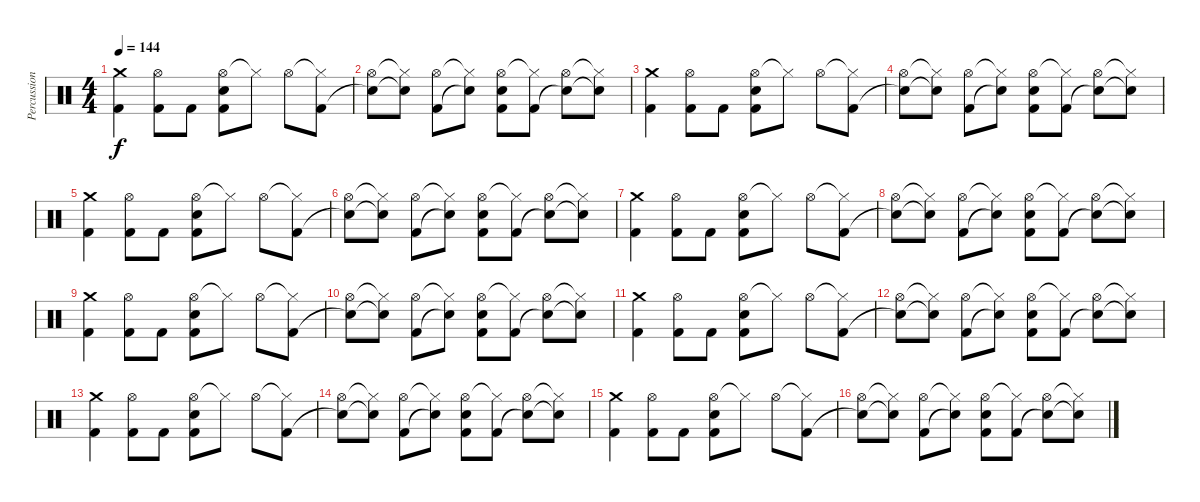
\track ("Percussion" "Percussion") {instrument percussion}
\staff {score}
\articulation defaults
\ts (4 4)
\tempo 144
\clef neutral
\ks c
("Crash medium (hit)" "Kick (hit) 2").4{dy f} ("Hi-Hat (open)" "Kick (hit) 2").8 "Kick (hit) 2".8 ("Hi-Hat (open)" "Electric Snare (hit)" "Kick (hit) 2").8 "Hi-Hat (closed)"{t}.8 "Hi-Hat (open)".8 ("Hi-Hat (closed)"{t} "Kick (hit) 2").8 |
("Hi-Hat (open)" "Snare (hit)"{t}).8 ("Hi-Hat (closed)"{t} "Snare (hit)"{t}).8 ("Hi-Hat (open)" "Kick (hit) 2").8 ("Hi-Hat (closed)"{t} "Snare (hit)"{t}).8 ("Hi-Hat (open)" "Electric Snare (hit)" "Kick (hit) 2").8 ("Hi-Hat (closed)"{t} "Kick (hit) 2").8 ("Hi-Hat (open)" "Snare (hit)"{t}).8 ("Hi-Hat (closed)"{t} "Snare (hit)"{t}).8 |
("Crash medium (hit)" "Kick (hit) 2").4 ("Hi-Hat (open)" "Kick (hit) 2").8 "Kick (hit) 2".8 ("Hi-Hat (open)" "Electric Snare (hit)" "Kick (hit) 2").8 "Hi-Hat (closed)"{t}.8 "Hi-Hat (open)".8 ("Hi-Hat (closed)"{t} "Kick (hit) 2").8 |
("Hi-Hat (open)" "Snare (hit)"{t}).8 ("Hi-Hat (closed)"{t} "Snare (hit)"{t}).8 ("Hi-Hat (open)" "Kick (hit) 2").8 ("Hi-Hat (closed)"{t} "Snare (hit)"{t}).8 ("Hi-Hat (open)" "Electric Snare (hit)" "Kick (hit) 2").8 ("Hi-Hat (closed)"{t} "Kick (hit) 2").8 ("Hi-Hat (open)" "Snare (hit)"{t}).8 ("Hi-Hat (closed)"{t} "Snare (hit)"{t}).8 |
("Crash medium (hit)" "Kick (hit) 2").4 ("Hi-Hat (open)" "Kick (hit) 2").8 "Kick (hit) 2".8 ("Hi-Hat (open)" "Electric Snare (hit)" "Kick (hit) 2").8 "Hi-Hat (closed)"{t}.8 "Hi-Hat (open)".8 ("Hi-Hat (closed)"{t} "Kick (hit) 2").8 |
("Hi-Hat (open)" "Snare (hit)"{t}).8 ("Hi-Hat (closed)"{t} "Snare (hit)"{t}).8 ("Hi-Hat (open)" "Kick (hit) 2").8 ("Hi-Hat (closed)"{t} "Snare (hit)"{t}).8 ("Hi-Hat (open)" "Electric Snare (hit)" "Kick (hit) 2").8 ("Hi-Hat (closed)"{t} "Kick (hit) 2").8 ("Hi-Hat (open)" "Snare (hit)"{t}).8 ("Hi-Hat (closed)"{t} "Snare (hit)"{t}).8 |
("Crash medium (hit)" "Kick (hit) 2").4 ("Hi-Hat (open)" "Kick (hit) 2").8 "Kick (hit) 2".8 ("Hi-Hat (open)" "Electric Snare (hit)" "Kick (hit) 2").8 "Hi-Hat (closed)"{t}.8 "Hi-Hat (open)".8 ("Hi-Hat (closed)"{t} "Kick (hit) 2").8 |
("Hi-Hat (open)" "Snare (hit)"{t}).8 ("Hi-Hat (closed)"{t} "Snare (hit)"{t}).8 ("Hi-Hat (open)" "Kick (hit) 2").8 ("Hi-Hat (closed)"{t} "Snare (hit)"{t}).8 ("Hi-Hat (open)" "Electric Snare (hit)" "Kick (hit) 2").8 ("Hi-Hat (closed)"{t} "Kick (hit) 2").8 ("Hi-Hat (open)" "Snare (hit)"{t}).8 ("Hi-Hat (closed)"{t} "Snare (hit)"{t}).8 |
("Crash medium (hit)" "Kick (hit) 2").4 ("Hi-Hat (open)" "Kick (hit) 2").8 "Kick (hit) 2".8 ("Hi-Hat (open)" "Electric Snare (hit)" "Kick (hit) 2").8 "Hi-Hat (closed)"{t}.8 "Hi-Hat (open)".8 ("Hi-Hat (closed)"{t} "Kick (hit) 2").8 |
("Hi-Hat (open)" "Snare (hit)"{t}).8 ("Hi-Hat (closed)"{t} "Snare (hit)"{t}).8 ("Hi-Hat (open)" "Kick (hit) 2").8 ("Hi-Hat (closed)"{t} "Snare (hit)"{t}).8 ("Hi-Hat (open)" "Electric Snare (hit)" "Kick (hit) 2").8 ("Hi-Hat (closed)"{t} "Kick (hit) 2").8 ("Hi-Hat (open)" "Snare (hit)"{t}).8 ("Hi-Hat (closed)"{t} "Snare (hit)"{t}).8 |
("Crash medium (hit)" "Kick (hit) 2").4 ("Hi-Hat (open)" "Kick (hit) 2").8 "Kick (hit) 2".8 ("Hi-Hat (open)" "Electric Snare (hit)" "Kick (hit) 2").8 "Hi-Hat (closed)"{t}.8 "Hi-Hat (open)".8 ("Hi-Hat (closed)"{t} "Kick (hit) 2").8 |
("Hi-Hat (open)" "Snare (hit)"{t}).8 ("Hi-Hat (closed)"{t} "Snare (hit)"{t}).8 ("Hi-Hat (open)" "Kick (hit) 2").8 ("Hi-Hat (closed)"{t} "Snare (hit)"{t}).8 ("Hi-Hat (open)" "Electric Snare (hit)" "Kick (hit) 2").8 ("Hi-Hat (closed)"{t} "Kick (hit) 2").8 ("Hi-Hat (open)" "Snare (hit)"{t}).8 ("Hi-Hat (closed)"{t} "Snare (hit)"{t}).8 |
("Crash medium (hit)" "Kick (hit) 2").4 ("Hi-Hat (open)" "Kick (hit) 2").8 "Kick (hit) 2".8 ("Hi-Hat (open)" "Electric Snare (hit)" "Kick (hit) 2").8 "Hi-Hat (closed)"{t}.8 "Hi-Hat (open)".8 ("Hi-Hat (closed)"{t} "Kick (hit) 2").8 |
("Hi-Hat (open)" "Snare (hit)"{t}).8 ("Hi-Hat (closed)"{t} "Snare (hit)"{t}).8 ("Hi-Hat (open)" "Kick (hit) 2").8 ("Hi-Hat (closed)"{t} "Snare (hit)"{t}).8 ("Hi-Hat (open)" "Electric Snare (hit)" "Kick (hit) 2").8 ("Hi-Hat (closed)"{t} "Kick (hit) 2").8 ("Hi-Hat (open)" "Snare (hit)"{t}).8 ("Hi-Hat (closed)"{t} "Snare (hit)"{t}).8 |
("Crash medium (hit)" "Kick (hit) 2").4 ("Hi-Hat (open)" "Kick (hit) 2").8 "Kick (hit) 2".8 ("Hi-Hat (open)" "Electric Snare (hit)" "Kick (hit) 2").8 "Hi-Hat (closed)"{t}.8 "Hi-Hat (open)".8 ("Hi-Hat (closed)"{t} "Kick (hit) 2").8 |
("Hi-Hat (open)" "Snare (hit)"{t}).8 ("Hi-Hat (closed)"{t} "Snare (hit)"{t}).8 ("Hi-Hat (open)" "Kick (hit) 2").8 ("Hi-Hat (closed)"{t} "Snare (hit)"{t}).8 ("Hi-Hat (open)" "Electric Snare (hit)" "Kick (hit) 2").8 ("Hi-Hat (closed)"{t} "Kick (hit) 2").8 ("Hi-Hat (open)" "Snare (hit)"{t}).8 ("Hi-Hat (closed)"{t} "Snare (hit)"{t}).8
